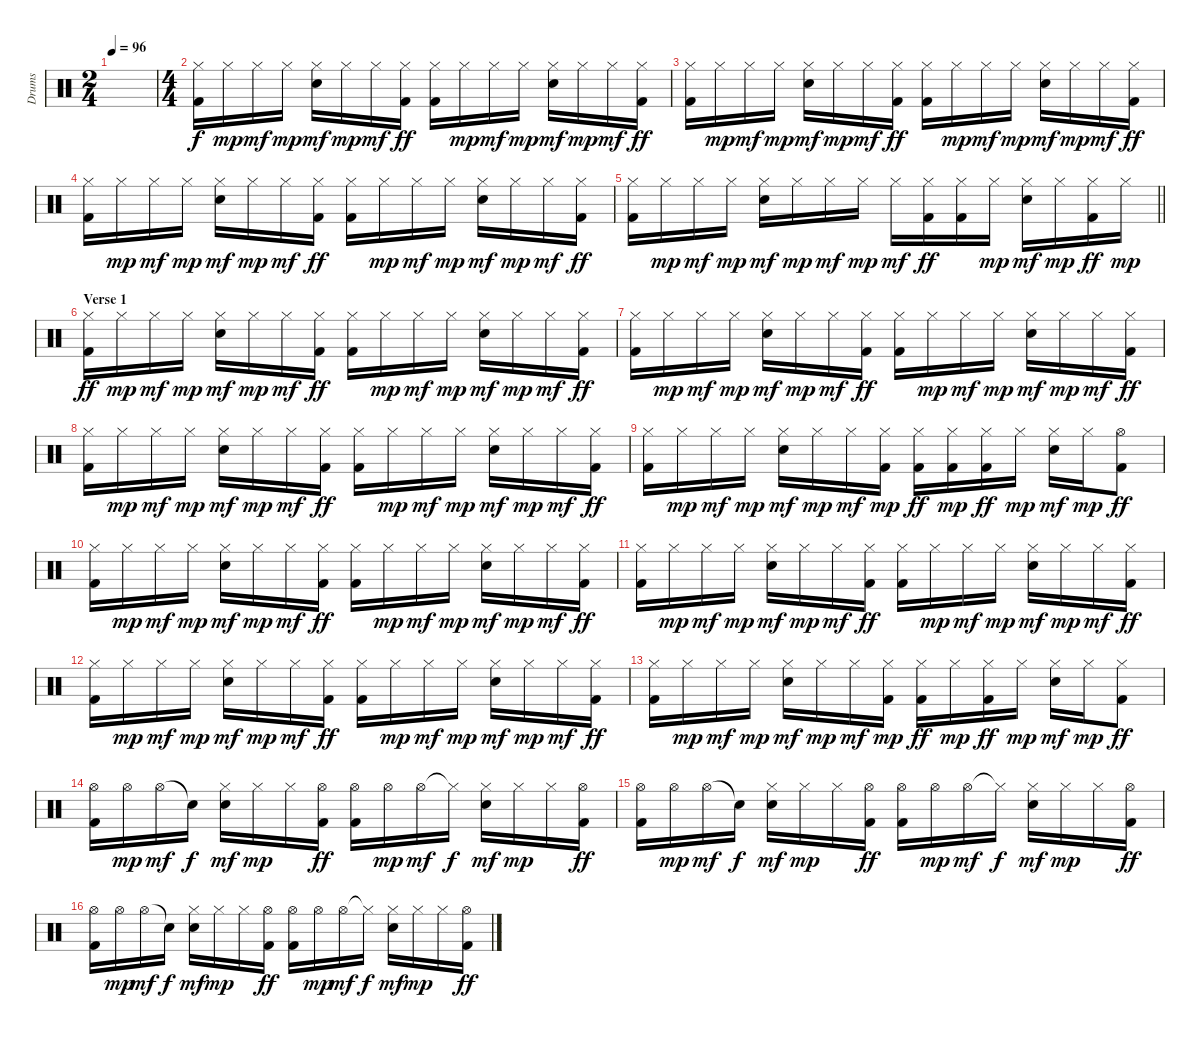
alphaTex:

\track ("Drums" "Drums") {instrument percussion}
\staff {score}
\articulation defaults
\ts (2 4)
\tempo 96
\clef neutral
\ks c
|
\ts (4 4)
("Hi-Hat (closed)" "Kick (hit) 2").16 "Hi-Hat (closed)".16{dy mp} "Hi-Hat (closed)".16{dy mf} "Hi-Hat (closed)".16{dy mp} ("Hi-Hat (closed)" "Electric Snare (hit)").16{dy mf} "Hi-Hat (closed)".16{dy mp} "Hi-Hat (closed)".16{dy mf} ("Hi-Hat (closed)" "Kick (hit) 2").16{dy ff} ("Hi-Hat (closed)" "Kick (hit) 2").16 "Hi-Hat (closed)".16{dy mp} "Hi-Hat (closed)".16{dy mf} "Hi-Hat (closed)".16{dy mp} ("Hi-Hat (closed)" "Electric Snare (hit)").16{dy mf} "Hi-Hat (closed)".16{dy mp} "Hi-Hat (closed)".16{dy mf} ("Hi-Hat (closed)" "Kick (hit) 2").16{dy ff} |
("Hi-Hat (closed)" "Kick (hit) 2").16 "Hi-Hat (closed)".16{dy mp} "Hi-Hat (closed)".16{dy mf} "Hi-Hat (closed)".16{dy mp} ("Hi-Hat (closed)" "Electric Snare (hit)").16{dy mf} "Hi-Hat (closed)".16{dy mp} "Hi-Hat (closed)".16{dy mf} ("Hi-Hat (closed)" "Kick (hit) 2").16{dy ff} ("Hi-Hat (closed)" "Kick (hit) 2").16 "Hi-Hat (closed)".16{dy mp} "Hi-Hat (closed)".16{dy mf} "Hi-Hat (closed)".16{dy mp} ("Hi-Hat (closed)" "Electric Snare (hit)").16{dy mf} "Hi-Hat (closed)".16{dy mp} "Hi-Hat (closed)".16{dy mf} ("Hi-Hat (closed)" "Kick (hit) 2").16{dy ff} |
("Hi-Hat (closed)" "Kick (hit) 2").16 "Hi-Hat (closed)".16{dy mp} "Hi-Hat (closed)".16{dy mf} "Hi-Hat (closed)".16{dy mp} ("Hi-Hat (closed)" "Electric Snare (hit)").16{dy mf} "Hi-Hat (closed)".16{dy mp} "Hi-Hat (closed)".16{dy mf} ("Hi-Hat (closed)" "Kick (hit) 2").16{dy ff} ("Hi-Hat (closed)" "Kick (hit) 2").16 "Hi-Hat (closed)".16{dy mp} "Hi-Hat (closed)".16{dy mf} "Hi-Hat (closed)".16{dy mp} ("Hi-Hat (closed)" "Electric Snare (hit)").16{dy mf} "Hi-Hat (closed)".16{dy mp} "Hi-Hat (closed)".16{dy mf} ("Hi-Hat (closed)" "Kick (hit) 2").16{dy ff} |
\barLineRight lightlight
("Hi-Hat (closed)" "Kick (hit) 2").16 "Hi-Hat (closed)".16{dy mp} "Hi-Hat (closed)".16{dy mf} "Hi-Hat (closed)".16{dy mp} ("Hi-Hat (closed)" "Electric Snare (hit)").16{dy mf} "Hi-Hat (closed)".16{dy mp} "Hi-Hat (closed)".16{dy mf} "Hi-Hat (closed)".16{dy mp} "Hi-Hat (closed)".16{dy mf} ("Hi-Hat (closed)" "Kick (hit) 2").16{dy ff} ("Hi-Hat (closed)" "Kick (hit) 2").16 "Hi-Hat (closed)".16{dy mp} ("Hi-Hat (closed)" "Electric Snare (hit)").16{dy mf} "Hi-Hat (closed)".16{dy mp} ("Hi-Hat (closed)" "Kick (hit) 2").16{dy ff} "Hi-Hat (closed)".16{dy mp} |
\section ("" "Verse 1")
("Hi-Hat (closed)" "Kick (hit) 2").16{dy ff} "Hi-Hat (closed)".16{dy mp} "Hi-Hat (closed)".16{dy mf} "Hi-Hat (closed)".16{dy mp} ("Hi-Hat (closed)" "Electric Snare (hit)").16{dy mf} "Hi-Hat (closed)".16{dy mp} "Hi-Hat (closed)".16{dy mf} ("Hi-Hat (closed)" "Kick (hit) 2").16{dy ff} ("Hi-Hat (closed)" "Kick (hit) 2").16 "Hi-Hat (closed)".16{dy mp} "Hi-Hat (closed)".16{dy mf} "Hi-Hat (closed)".16{dy mp} ("Hi-Hat (closed)" "Electric Snare (hit)").16{dy mf} "Hi-Hat (closed)".16{dy mp} "Hi-Hat (closed)".16{dy mf} ("Hi-Hat (closed)" "Kick (hit) 2").16{dy ff} |
("Hi-Hat (closed)" "Kick (hit) 2").16 "Hi-Hat (closed)".16{dy mp} "Hi-Hat (closed)".16{dy mf} "Hi-Hat (closed)".16{dy mp} ("Hi-Hat (closed)" "Electric Snare (hit)").16{dy mf} "Hi-Hat (closed)".16{dy mp} "Hi-Hat (closed)".16{dy mf} ("Hi-Hat (closed)" "Kick (hit) 2").16{dy ff} ("Hi-Hat (closed)" "Kick (hit) 2").16 "Hi-Hat (closed)".16{dy mp} "Hi-Hat (closed)".16{dy mf} "Hi-Hat (closed)".16{dy mp} ("Hi-Hat (closed)" "Electric Snare (hit)").16{dy mf} "Hi-Hat (closed)".16{dy mp} "Hi-Hat (closed)".16{dy mf} ("Hi-Hat (closed)" "Kick (hit) 2").16{dy ff} |
("Hi-Hat (closed)" "Kick (hit) 2").16 "Hi-Hat (closed)".16{dy mp} "Hi-Hat (closed)".16{dy mf} "Hi-Hat (closed)".16{dy mp} ("Hi-Hat (closed)" "Electric Snare (hit)").16{dy mf} "Hi-Hat (closed)".16{dy mp} "Hi-Hat (closed)".16{dy mf} ("Hi-Hat (closed)" "Kick (hit) 2").16{dy ff} ("Hi-Hat (closed)" "Kick (hit) 2").16 "Hi-Hat (closed)".16{dy mp} "Hi-Hat (closed)".16{dy mf} "Hi-Hat (closed)".16{dy mp} ("Hi-Hat (closed)" "Electric Snare (hit)").16{dy mf} "Hi-Hat (closed)".16{dy mp} "Hi-Hat (closed)".16{dy mf} ("Hi-Hat (closed)" "Kick (hit) 2").16{dy ff} |
("Hi-Hat (closed)" "Kick (hit) 2").16 "Hi-Hat (closed)".16{dy mp} "Hi-Hat (closed)".16{dy mf} "Hi-Hat (closed)".16{dy mp} ("Hi-Hat (closed)" "Electric Snare (hit)").16{dy mf} "Hi-Hat (closed)".16{dy mp} "Hi-Hat (closed)".16{dy mf} ("Hi-Hat (closed)" "Kick (hit) 2").16{dy mp} ("Hi-Hat (closed)" "Kick (hit) 2").16{dy ff} ("Hi-Hat (closed)" "Kick (hit) 2").16{dy mp} ("Hi-Hat (closed)" "Kick (hit) 2").16{dy ff} "Hi-Hat (closed)".16{dy mp} ("Hi-Hat (closed)" "Electric Snare (hit)").16{dy mf} "Hi-Hat (closed)".16{dy mp} ("Hi-Hat (open)" "Kick (hit) 2").8{dy ff} |
("Hi-Hat (closed)" "Kick (hit) 2").16 "Hi-Hat (closed)".16{dy mp} "Hi-Hat (closed)".16{dy mf} "Hi-Hat (closed)".16{dy mp} ("Hi-Hat (closed)" "Electric Snare (hit)").16{dy mf} "Hi-Hat (closed)".16{dy mp} "Hi-Hat (closed)".16{dy mf} ("Hi-Hat (closed)" "Kick (hit) 2").16{dy ff} ("Hi-Hat (closed)" "Kick (hit) 2").16 "Hi-Hat (closed)".16{dy mp} "Hi-Hat (closed)".16{dy mf} "Hi-Hat (closed)".16{dy mp} ("Hi-Hat (closed)" "Electric Snare (hit)").16{dy mf} "Hi-Hat (closed)".16{dy mp} "Hi-Hat (closed)".16{dy mf} ("Hi-Hat (closed)" "Kick (hit) 2").16{dy ff} |
("Hi-Hat (closed)" "Kick (hit) 2").16 "Hi-Hat (closed)".16{dy mp} "Hi-Hat (closed)".16{dy mf} "Hi-Hat (closed)".16{dy mp} ("Hi-Hat (closed)" "Electric Snare (hit)").16{dy mf} "Hi-Hat (closed)".16{dy mp} "Hi-Hat (closed)".16{dy mf} ("Hi-Hat (closed)" "Kick (hit) 2").16{dy ff} ("Hi-Hat (closed)" "Kick (hit) 2").16 "Hi-Hat (closed)".16{dy mp} "Hi-Hat (closed)".16{dy mf} "Hi-Hat (closed)".16{dy mp} ("Hi-Hat (closed)" "Electric Snare (hit)").16{dy mf} "Hi-Hat (closed)".16{dy mp} "Hi-Hat (closed)".16{dy mf} ("Hi-Hat (closed)" "Kick (hit) 2").16{dy ff} |
("Hi-Hat (closed)" "Kick (hit) 2").16 "Hi-Hat (closed)".16{dy mp} "Hi-Hat (closed)".16{dy mf} "Hi-Hat (closed)".16{dy mp} ("Hi-Hat (closed)" "Electric Snare (hit)").16{dy mf} "Hi-Hat (closed)".16{dy mp} "Hi-Hat (closed)".16{dy mf} ("Hi-Hat (closed)" "Kick (hit) 2").16{dy ff} ("Hi-Hat (closed)" "Kick (hit) 2").16 "Hi-Hat (closed)".16{dy mp} "Hi-Hat (closed)".16{dy mf} "Hi-Hat (closed)".16{dy mp} ("Hi-Hat (closed)" "Electric Snare (hit)").16{dy mf} "Hi-Hat (closed)".16{dy mp} "Hi-Hat (closed)".16{dy mf} ("Hi-Hat (closed)" "Kick (hit) 2").16{dy ff} |
("Hi-Hat (closed)" "Kick (hit) 2").16 "Hi-Hat (closed)".16{dy mp} "Hi-Hat (closed)".16{dy mf} "Hi-Hat (closed)".16{dy mp} ("Hi-Hat (closed)" "Electric Snare (hit)").16{dy mf} "Hi-Hat (closed)".16{dy mp} "Hi-Hat (closed)".16{dy mf} ("Hi-Hat (closed)" "Kick (hit) 2").16{dy mp} ("Hi-Hat (closed)" "Kick (hit) 2").16{dy ff} "Hi-Hat (closed)".16{dy mp} ("Hi-Hat (closed)" "Kick (hit) 2").16{dy ff} "Hi-Hat (closed)".16{dy mp} ("Hi-Hat (closed)" "Electric Snare (hit)").16{dy mf} "Hi-Hat (closed)".16{dy mp} ("Hi-Hat (closed)" "Kick (hit) 2").8{dy ff} |
("Hi-Hat (open)" "Kick (hit) 2").16 "Hi-Hat (open)".16{dy mp} "Hi-Hat (open)".16{dy mf} "Snare (hit)"{t}.16{dy f} ("Hi-Hat (closed)" "Electric Snare (hit)").16{dy mf} "Hi-Hat (closed)".16{dy mp} "Hi-Hat (closed)".16 ("Hi-Hat (open)" "Kick (hit) 2").16{dy ff} ("Hi-Hat (open)" "Kick (hit) 2").16 "Hi-Hat (open)".16{dy mp} "Hi-Hat (open)".16{dy mf} "Hi-Hat (closed)"{t}.16{dy f} ("Hi-Hat (closed)" "Electric Snare (hit)").16{dy mf} "Hi-Hat (closed)".16{dy mp} "Hi-Hat (closed)".16 ("Hi-Hat (open)" "Kick (hit) 2").16{dy ff} |
("Hi-Hat (open)" "Kick (hit) 2").16 "Hi-Hat (open)".16{dy mp} "Hi-Hat (open)".16{dy mf} "Snare (hit)"{t}.16{dy f} ("Hi-Hat (closed)" "Electric Snare (hit)").16{dy mf} "Hi-Hat (closed)".16{dy mp} "Hi-Hat (closed)".16 ("Hi-Hat (open)" "Kick (hit) 2").16{dy ff} ("Hi-Hat (open)" "Kick (hit) 2").16 "Hi-Hat (open)".16{dy mp} "Hi-Hat (open)".16{dy mf} "Hi-Hat (closed)"{t}.16{dy f} ("Hi-Hat (closed)" "Electric Snare (hit)").16{dy mf} "Hi-Hat (closed)".16{dy mp} "Hi-Hat (closed)".16 ("Hi-Hat (open)" "Kick (hit) 2").16{dy ff} |
("Hi-Hat (open)" "Kick (hit) 2").16 "Hi-Hat (open)".16{dy mp} "Hi-Hat (open)".16{dy mf} "Snare (hit)"{t}.16{dy f} ("Hi-Hat (closed)" "Electric Snare (hit)").16{dy mf} "Hi-Hat (closed)".16{dy mp} "Hi-Hat (closed)".16 ("Hi-Hat (open)" "Kick (hit) 2").16{dy ff} ("Hi-Hat (open)" "Kick (hit) 2").16 "Hi-Hat (open)".16{dy mp} "Hi-Hat (open)".16{dy mf} "Hi-Hat (closed)"{t}.16{dy f} ("Hi-Hat (closed)" "Electric Snare (hit)").16{dy mf} "Hi-Hat (closed)".16{dy mp} "Hi-Hat (closed)".16 ("Hi-Hat (open)" "Kick (hit) 2").16{dy ff}
